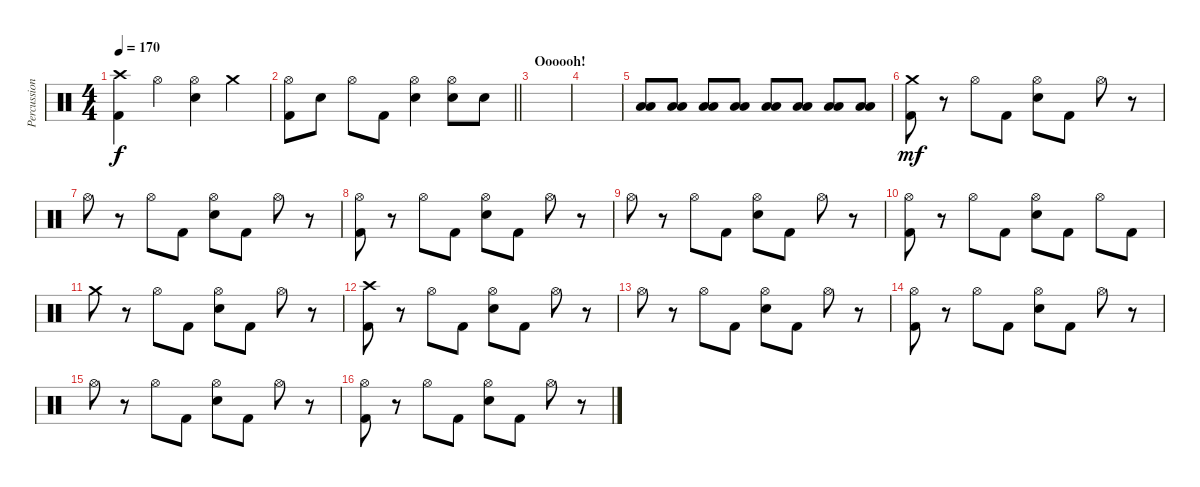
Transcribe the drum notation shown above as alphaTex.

\track ("Percussion" "Percussion") {instrument percussion}
\staff {score}
\articulation defaults
\ts (4 4)
\section ("" "")
\tempo 170
\clef neutral
\ks c
("Crash high (hit)" "Kick (hit) 2").4{dy f} "Hi-Hat (open)".4 ("Hi-Hat (open)" "Electric Snare (hit)").4 "Crash medium (hit)".4 |
\barLineRight lightlight
("Hi-Hat (open)" "Kick (hit) 2").8 "Electric Snare (hit)".8 "Hi-Hat (open)".8 "Kick (hit) 2".8 ("Hi-Hat (open)" "Electric Snare (hit)").4 ("Hi-Hat (open)" "Electric Snare (hit)").8 "Electric Snare (hit)".8 |
\section ("" "Oooooh!")
|
|
("Low Tom (hit)" "Low Floor Tom (hit)").8 ("Low Tom (hit)" "Low Floor Tom (hit)").8 ("Low Tom (hit)" "Low Floor Tom (hit)").8 ("Low Tom (hit)" "Low Floor Tom (hit)").8 ("Low Tom (hit)" "Low Floor Tom (hit)").8 ("Low Tom (hit)" "Low Floor Tom (hit)").8 ("Low Tom (hit)" "Low Floor Tom (hit)").8 ("Low Tom (hit)" "Low Floor Tom (hit)").8 |
("Crash medium (hit)" "Kick (hit) 2").8{dy mf} r.8 "Hi-Hat (open)".8 "Kick (hit) 2".8 ("Hi-Hat (open)" "Electric Snare (hit)").8 "Kick (hit) 2".8 "Hi-Hat (open)".8 r.8 |
"Hi-Hat (open)".8 r.8 "Hi-Hat (open)".8 "Kick (hit) 2".8 ("Hi-Hat (open)" "Electric Snare (hit)").8 "Kick (hit) 2".8 "Hi-Hat (open)".8 r.8 |
("Hi-Hat (open)" "Kick (hit) 2").8 r.8 "Hi-Hat (open)".8 "Kick (hit) 2".8 ("Hi-Hat (open)" "Electric Snare (hit)").8 "Kick (hit) 2".8 "Hi-Hat (open)".8 r.8 |
"Hi-Hat (open)".8 r.8 "Hi-Hat (open)".8 "Kick (hit) 2".8 ("Hi-Hat (open)" "Electric Snare (hit)").8 "Kick (hit) 2".8 "Hi-Hat (open)".8 r.8 |
("Hi-Hat (open)" "Kick (hit) 2").8 r.8 "Hi-Hat (open)".8 "Kick (hit) 2".8 ("Hi-Hat (open)" "Electric Snare (hit)").8 "Kick (hit) 2".8 "Hi-Hat (open)".8 "Kick (hit) 2".8 |
"Crash medium (hit)".8 r.8 "Hi-Hat (open)".8 "Kick (hit) 2".8 ("Hi-Hat (open)" "Electric Snare (hit)").8 "Kick (hit) 2".8 "Hi-Hat (open)".8 r.8 |
("Crash high (hit)" "Kick (hit) 2").8 r.8 "Hi-Hat (open)".8 "Kick (hit) 2".8 ("Hi-Hat (open)" "Electric Snare (hit)").8 "Kick (hit) 2".8 "Hi-Hat (open)".8 r.8 |
"Hi-Hat (open)".8 r.8 "Hi-Hat (open)".8 "Kick (hit) 2".8 ("Hi-Hat (open)" "Electric Snare (hit)").8 "Kick (hit) 2".8 "Hi-Hat (open)".8 r.8 |
("Hi-Hat (open)" "Kick (hit) 2").8 r.8 "Hi-Hat (open)".8 "Kick (hit) 2".8 ("Hi-Hat (open)" "Electric Snare (hit)").8 "Kick (hit) 2".8 "Hi-Hat (open)".8 r.8 |
"Hi-Hat (open)".8 r.8 "Hi-Hat (open)".8 "Kick (hit) 2".8 ("Hi-Hat (open)" "Electric Snare (hit)").8 "Kick (hit) 2".8 "Hi-Hat (open)".8 r.8 |
("Hi-Hat (open)" "Kick (hit) 2").8 r.8 "Hi-Hat (open)".8 "Kick (hit) 2".8 ("Hi-Hat (open)" "Electric Snare (hit)").8 "Kick (hit) 2".8 "Hi-Hat (open)".8 r.8
